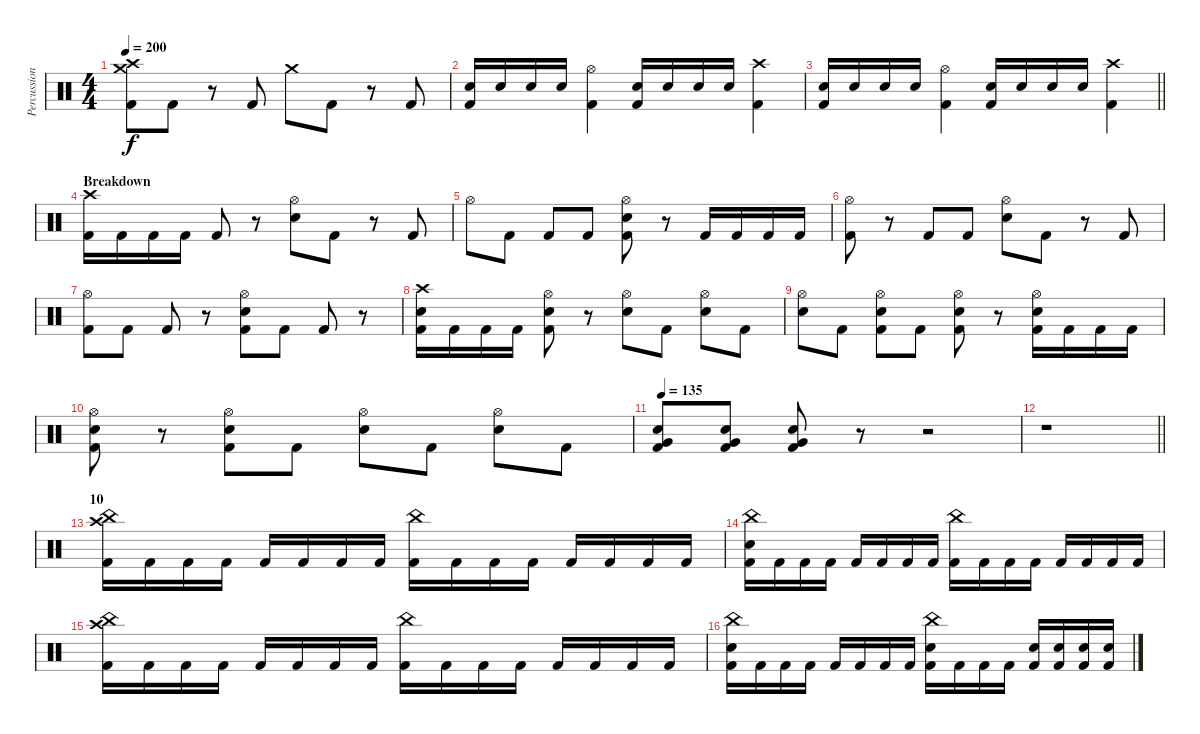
\track ("Percussion" "Percussion") {instrument percussion}
\staff {score}
\articulation defaults
\ts (4 4)
\tempo 200
\clef neutral
\ks c
("Crash medium (hit)" "Crash high (hit)" "Kick (hit) 2").8{dy f} "Kick (hit) 2".8 r.8 "Kick (hit) 2".8 "Crash medium (hit)".8 "Kick (hit) 2".8 r.8 "Kick (hit) 2".8 |
("Electric Snare (hit)" "Kick (hit) 2").16 "Electric Snare (hit)".16 "Electric Snare (hit)".16 "Electric Snare (hit)".16 ("Hi-Hat (open)" "Kick (hit) 2").4 ("Electric Snare (hit)" "Kick (hit) 2").16 "Electric Snare (hit)".16 "Electric Snare (hit)".16 "Electric Snare (hit)".16 ("Crash high (hit)" "Kick (hit) 2").4 |
\barLineRight lightlight
("Electric Snare (hit)" "Kick (hit) 2").16 "Electric Snare (hit)".16 "Electric Snare (hit)".16 "Electric Snare (hit)".16 ("Hi-Hat (open)" "Kick (hit) 2").4 ("Electric Snare (hit)" "Kick (hit) 2").16 "Electric Snare (hit)".16 "Electric Snare (hit)".16 "Electric Snare (hit)".16 ("Crash high (hit)" "Kick (hit) 2").4 |
\section ("" "Breakdown")
("Crash high (hit)" "Kick (hit) 2").16 "Kick (hit) 2".16 "Kick (hit) 2".16 "Kick (hit) 2".16 "Kick (hit) 2".8 r.8 ("Hi-Hat (open)" "Electric Snare (hit)").8 "Kick (hit) 2".8 r.8 "Kick (hit) 2".8 |
"Hi-Hat (open)".8 "Kick (hit) 2".8 "Kick (hit) 2".8 "Kick (hit) 2".8 ("Hi-Hat (open)" "Electric Snare (hit)" "Kick (hit) 2").8 r.8 "Kick (hit) 2".16 "Kick (hit) 2".16 "Kick (hit) 2".16 "Kick (hit) 2".16 |
("Hi-Hat (open)" "Kick (hit) 2").8 r.8 "Kick (hit) 2".8 "Kick (hit) 2".8 ("Hi-Hat (open)" "Electric Snare (hit)").8 "Kick (hit) 2".8 r.8 "Kick (hit) 2".8 |
("Hi-Hat (open)" "Kick (hit) 2").8 "Kick (hit) 2".8 "Kick (hit) 2".8 r.8 ("Hi-Hat (open)" "Electric Snare (hit)" "Kick (hit) 2").8 "Kick (hit) 2".8 "Kick (hit) 2".8 r.8 |
("Crash high (hit)" "Electric Snare (hit)" "Kick (hit) 2").16 "Kick (hit) 2".16 "Kick (hit) 2".16 "Kick (hit) 2".16 ("Hi-Hat (open)" "Electric Snare (hit)" "Kick (hit) 2").8 r.8 ("Hi-Hat (open)" "Electric Snare (hit)").8 "Kick (hit) 2".8 ("Hi-Hat (open)" "Electric Snare (hit)").8 "Kick (hit) 2".8 |
("Hi-Hat (open)" "Electric Snare (hit)").8 "Kick (hit) 2".8 ("Hi-Hat (open)" "Electric Snare (hit)" "Kick (hit) 2").8 "Kick (hit) 2".8 ("Hi-Hat (open)" "Electric Snare (hit)" "Kick (hit) 2").8 r.8 ("Hi-Hat (open)" "Electric Snare (hit)" "Kick (hit) 2").16 "Kick (hit) 2".16 "Kick (hit) 2".16 "Kick (hit) 2".16 |
("Hi-Hat (open)" "Electric Snare (hit)" "Kick (hit) 2").8 r.8 ("Hi-Hat (open)" "Electric Snare (hit)" "Kick (hit) 2").8 "Kick (hit) 2".8 ("Hi-Hat (open)" "Electric Snare (hit)").8 "Kick (hit) 2".8 ("Hi-Hat (open)" "Electric Snare (hit)").8 "Kick (hit) 2".8 |
\tempo 135
("Very Low Tom (hit)" "Electric Snare (hit)" "Kick (hit) 2").8 ("Very Low Tom (hit)" "Electric Snare (hit)" "Kick (hit) 2").8 ("Very Low Tom (hit)" "Electric Snare (hit)" "Kick (hit) 2").8 r.8 r.2 |
\barLineRight lightlight
r.1 |
\section ("" "10")
("Crash high (hit)" "China (hit)" "Kick (hit) 2").16 "Kick (hit) 2".16 "Kick (hit) 2".16 "Kick (hit) 2".16 "Kick (hit) 2".16 "Kick (hit) 2".16 "Kick (hit) 2".16 "Kick (hit) 2".16 ("China (hit)" "Kick (hit) 2").16 "Kick (hit) 2".16 "Kick (hit) 2".16 "Kick (hit) 2".16 "Kick (hit) 2".16 "Kick (hit) 2".16 "Kick (hit) 2".16 "Kick (hit) 2".16 |
("China (hit)" "Electric Snare (hit)" "Kick (hit) 2").16 "Kick (hit) 2".16 "Kick (hit) 2".16 "Kick (hit) 2".16 "Kick (hit) 2".16 "Kick (hit) 2".16 "Kick (hit) 2".16 "Kick (hit) 2".16 ("China (hit)" "Kick (hit) 2").16 "Kick (hit) 2".16 "Kick (hit) 2".16 "Kick (hit) 2".16 "Kick (hit) 2".16 "Kick (hit) 2".16 "Kick (hit) 2".16 "Kick (hit) 2".16 |
("Crash high (hit)" "China (hit)" "Kick (hit) 2").16 "Kick (hit) 2".16 "Kick (hit) 2".16 "Kick (hit) 2".16 "Kick (hit) 2".16 "Kick (hit) 2".16 "Kick (hit) 2".16 "Kick (hit) 2".16 ("China (hit)" "Kick (hit) 2").16 "Kick (hit) 2".16 "Kick (hit) 2".16 "Kick (hit) 2".16 "Kick (hit) 2".16 "Kick (hit) 2".16 "Kick (hit) 2".16 "Kick (hit) 2".16 |
("China (hit)" "Electric Snare (hit)" "Kick (hit) 2").16 "Kick (hit) 2".16 "Kick (hit) 2".16 "Kick (hit) 2".16 "Kick (hit) 2".16 "Kick (hit) 2".16 "Kick (hit) 2".16 "Kick (hit) 2".16 ("China (hit)" "Electric Snare (hit)" "Kick (hit) 2").16 "Kick (hit) 2".16 "Kick (hit) 2".16 "Kick (hit) 2".16 ("Electric Snare (hit)" "Kick (hit) 2").16 ("Electric Snare (hit)" "Kick (hit) 2").16 ("Electric Snare (hit)" "Kick (hit) 2").16 ("Electric Snare (hit)" "Kick (hit) 2").16
